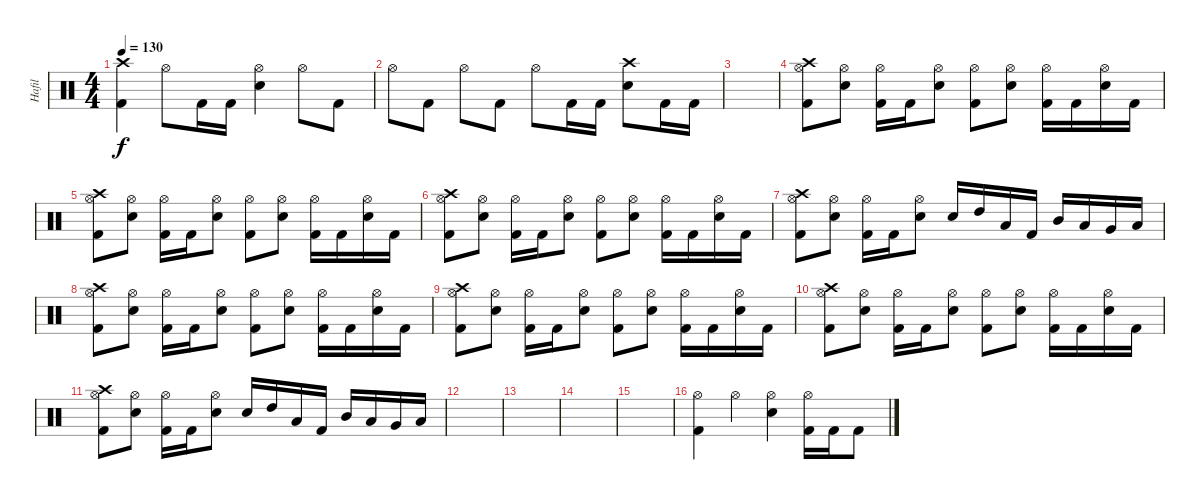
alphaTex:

\track ("Hafil" "Hafil") {instrument percussion}
\staff {score}
\articulation defaults
\ts (4 4)
\tempo 130
\clef neutral
\ks c
("Crash high (hit)" "Kick (hit) 2").4{dy f} "Hi-Hat (open)".8 "Kick (hit) 2".16 "Kick (hit) 2".16 ("Hi-Hat (open)" "Electric Snare (hit)").4 "Hi-Hat (open)".8 "Kick (hit) 2".8 |
"Hi-Hat (open)".8 "Kick (hit) 2".8 "Hi-Hat (open)".8 "Kick (hit) 2".8 "Hi-Hat (open)".8 "Kick (hit) 2".16 "Kick (hit) 2".16 ("Electric Snare (hit)" "Crash high (hit)").8 "Kick (hit) 2".16 "Kick (hit) 2".16 |
|
("Kick (hit) 2" "Hi-Hat (open)" "Crash high (hit)").8 ("Electric Snare (hit)" "Hi-Hat (open)").8 ("Kick (hit) 2" "Hi-Hat (open)").16 "Kick (hit) 2".16 ("Electric Snare (hit)" "Hi-Hat (open)").8 ("Kick (hit) 2" "Hi-Hat (open)").8 ("Electric Snare (hit)" "Hi-Hat (open)").8 ("Kick (hit) 2" "Hi-Hat (open)").16 "Kick (hit) 2".16 ("Electric Snare (hit)" "Hi-Hat (open)").16 "Kick (hit) 2".16 |
("Kick (hit) 2" "Hi-Hat (open)" "Crash high (hit)").8 ("Electric Snare (hit)" "Hi-Hat (open)").8 ("Kick (hit) 2" "Hi-Hat (open)").16 "Kick (hit) 2".16 ("Electric Snare (hit)" "Hi-Hat (open)").8 ("Kick (hit) 2" "Hi-Hat (open)").8 ("Electric Snare (hit)" "Hi-Hat (open)").8 ("Kick (hit) 2" "Hi-Hat (open)").16 "Kick (hit) 2".16 ("Electric Snare (hit)" "Hi-Hat (open)").16 "Kick (hit) 2".16 |
("Kick (hit) 2" "Hi-Hat (open)" "Crash high (hit)").8 ("Electric Snare (hit)" "Hi-Hat (open)").8 ("Kick (hit) 2" "Hi-Hat (open)").16 "Kick (hit) 2".16 ("Electric Snare (hit)" "Hi-Hat (open)").8 ("Kick (hit) 2" "Hi-Hat (open)").8 ("Electric Snare (hit)" "Hi-Hat (open)").8 ("Kick (hit) 2" "Hi-Hat (open)").16 "Kick (hit) 2".16 ("Electric Snare (hit)" "Hi-Hat (open)").16 "Kick (hit) 2".16 |
("Kick (hit) 2" "Hi-Hat (open)" "Crash high (hit)").8 ("Electric Snare (hit)" "Hi-Hat (open)").8 ("Kick (hit) 2" "Hi-Hat (open)").16 "Kick (hit) 2".16 ("Electric Snare (hit)" "Hi-Hat (open)").8 "Electric Snare (hit)".16 "High Tom (hit)".16 "Low Tom (hit)".16 "Kick (hit) 2".16 "Mid Tom (hit)".16 "Low Tom (hit)".16 "Very Low Tom (hit)".16 "Low Floor Tom (hit)".16 |
("Kick (hit) 2" "Hi-Hat (open)" "Crash high (hit)").8 ("Electric Snare (hit)" "Hi-Hat (open)").8 ("Kick (hit) 2" "Hi-Hat (open)").16 "Kick (hit) 2".16 ("Electric Snare (hit)" "Hi-Hat (open)").8 ("Kick (hit) 2" "Hi-Hat (open)").8 ("Electric Snare (hit)" "Hi-Hat (open)").8 ("Kick (hit) 2" "Hi-Hat (open)").16 "Kick (hit) 2".16 ("Electric Snare (hit)" "Hi-Hat (open)").16 "Kick (hit) 2".16 |
("Kick (hit) 2" "Hi-Hat (open)" "Crash high (hit)").8 ("Electric Snare (hit)" "Hi-Hat (open)").8 ("Kick (hit) 2" "Hi-Hat (open)").16 "Kick (hit) 2".16 ("Electric Snare (hit)" "Hi-Hat (open)").8 ("Kick (hit) 2" "Hi-Hat (open)").8 ("Electric Snare (hit)" "Hi-Hat (open)").8 ("Kick (hit) 2" "Hi-Hat (open)").16 "Kick (hit) 2".16 ("Electric Snare (hit)" "Hi-Hat (open)").16 "Kick (hit) 2".16 |
("Kick (hit) 2" "Hi-Hat (open)" "Crash high (hit)").8 ("Electric Snare (hit)" "Hi-Hat (open)").8 ("Kick (hit) 2" "Hi-Hat (open)").16 "Kick (hit) 2".16 ("Electric Snare (hit)" "Hi-Hat (open)").8 ("Kick (hit) 2" "Hi-Hat (open)").8 ("Electric Snare (hit)" "Hi-Hat (open)").8 ("Kick (hit) 2" "Hi-Hat (open)").16 "Kick (hit) 2".16 ("Electric Snare (hit)" "Hi-Hat (open)").16 "Kick (hit) 2".16 |
("Kick (hit) 2" "Hi-Hat (open)" "Crash high (hit)").8 ("Electric Snare (hit)" "Hi-Hat (open)").8 ("Kick (hit) 2" "Hi-Hat (open)").16 "Kick (hit) 2".16 ("Electric Snare (hit)" "Hi-Hat (open)").8 "Electric Snare (hit)".16 "High Tom (hit)".16 "Low Tom (hit)".16 "Kick (hit) 2".16 "Mid Tom (hit)".16 "Low Tom (hit)".16 "Very Low Tom (hit)".16 "Low Floor Tom (hit)".16 |
|
|
|
|
("Hi-Hat (open)" "Kick (hit) 2").4 "Hi-Hat (open)".4 ("Hi-Hat (open)" "Electric Snare (hit)").4 ("Hi-Hat (open)" "Kick (hit) 2").16 "Kick (hit) 2".16 "Kick (hit) 2".8
